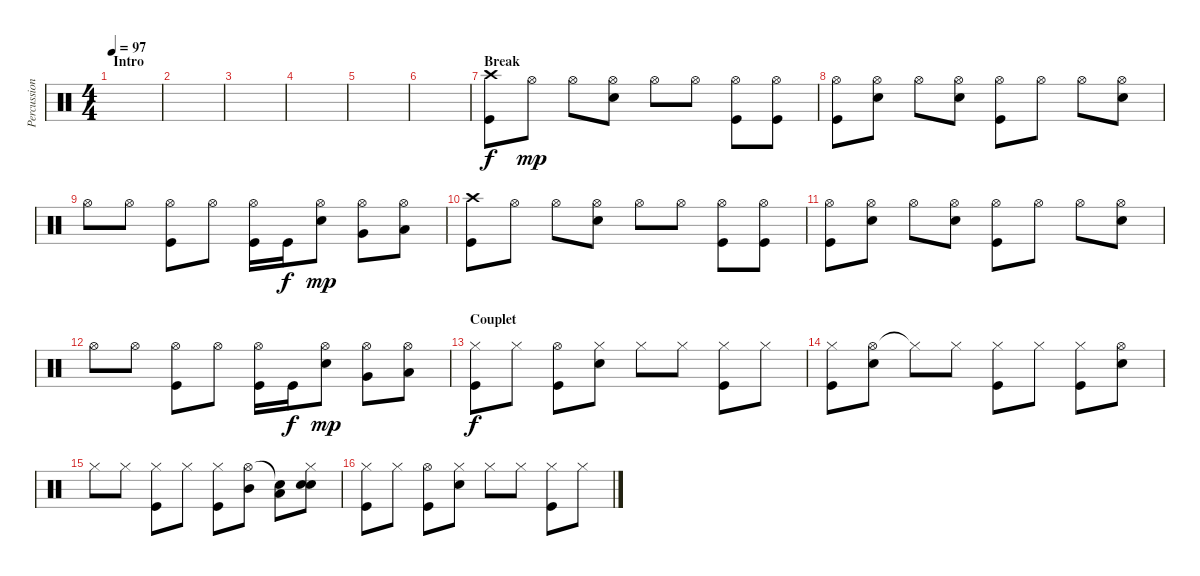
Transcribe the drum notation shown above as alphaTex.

\track ("Percussions (Etn)" "Percussion") {instrument percussion}
\staff {score}
\articulation defaults
\ts (4 4)
\section ("" "Intro")
\tempo 97
\clef neutral
\ks c
|
|
|
|
|
\section ("" "")
|
\section ("" "Break")
("Crash high (hit)" "Kick (hit)").8 "Hi-Hat (open)".8{dy mp} "Hi-Hat (open)".8 ("Hi-Hat (open)" "Electric Snare (hit)").8 "Hi-Hat (open)".8 "Hi-Hat (open)".8 ("Hi-Hat (open)" "Kick (hit)").8 ("Hi-Hat (open)" "Kick (hit)").8 |
("Hi-Hat (open)" "Kick (hit)").8 ("Hi-Hat (open)" "Electric Snare (hit)").8 "Hi-Hat (open)".8 ("Hi-Hat (open)" "Electric Snare (hit)").8 ("Hi-Hat (open)" "Kick (hit)").8 "Hi-Hat (open)".8 "Hi-Hat (open)".8 ("Hi-Hat (open)" "Electric Snare (hit)").8 |
"Hi-Hat (open)".8 "Hi-Hat (open)".8 ("Hi-Hat (open)" "Kick (hit)").8 "Hi-Hat (open)".8 ("Hi-Hat (open)" "Kick (hit)").16 "Kick (hit)".16{dy f} ("Hi-Hat (open)" "Electric Snare (hit)").8{dy mp} ("Hi-Hat (open)" "Very Low Tom (hit)").8 ("Hi-Hat (open)" "Low Floor Tom (hit)").8 |
("Crash high (hit)" "Kick (hit)").8 "Hi-Hat (open)".8 "Hi-Hat (open)".8 ("Hi-Hat (open)" "Electric Snare (hit)").8 "Hi-Hat (open)".8 "Hi-Hat (open)".8 ("Hi-Hat (open)" "Kick (hit)").8 ("Hi-Hat (open)" "Kick (hit)").8 |
("Hi-Hat (open)" "Kick (hit)").8 ("Hi-Hat (open)" "Electric Snare (hit)").8 "Hi-Hat (open)".8 ("Hi-Hat (open)" "Electric Snare (hit)").8 ("Hi-Hat (open)" "Kick (hit)").8 "Hi-Hat (open)".8 "Hi-Hat (open)".8 ("Hi-Hat (open)" "Electric Snare (hit)").8 |
\section ("" "")
"Hi-Hat (open)".8 "Hi-Hat (open)".8 ("Hi-Hat (open)" "Kick (hit)").8 "Hi-Hat (open)".8 ("Hi-Hat (open)" "Kick (hit)").16 "Kick (hit)".16{dy f} ("Hi-Hat (open)" "Electric Snare (hit)").8{dy mp} ("Hi-Hat (open)" "Very Low Tom (hit)").8 ("Hi-Hat (open)" "Low Floor Tom (hit)").8 |
\section ("" "Couplet")
("Hi-Hat (closed)" "Kick (hit)").8{dy f} "Hi-Hat (closed)".8 ("Hi-Hat (open)" "Kick (hit)").8 ("Hi-Hat (closed)" "Electric Snare (hit)").8 "Hi-Hat (closed)".8 "Hi-Hat (closed)".8 ("Hi-Hat (closed)" "Kick (hit)").8 "Hi-Hat (closed)".8 |
("Hi-Hat (closed)" "Kick (hit)").8 ("Hi-Hat (open)" "Electric Snare (hit)").8 "Hi-Hat (closed)"{t}.8 "Hi-Hat (closed)".8 ("Hi-Hat (closed)" "Kick (hit)").8 "Hi-Hat (closed)".8 ("Hi-Hat (closed)" "Kick (hit)").8 ("Hi-Hat (open)" "Electric Snare (hit)").8 |
"Hi-Hat (closed)".8 "Hi-Hat (closed)".8 ("Hi-Hat (closed)" "Kick (hit)").8 "Hi-Hat (closed)".8 ("Hi-Hat (closed)" "Kick (hit)").8 ("Hi-Hat (open)" "Mid Tom (hit)").8 ("Snare (hit)"{t} "Low Tom (hit)").8 ("Hi-Hat (closed)" "Electric Snare (hit)" "Electric Snare (hit)").8{bd 60} |
("Hi-Hat (closed)" "Kick (hit)").8 "Hi-Hat (closed)".8 ("Hi-Hat (open)" "Kick (hit)").8 ("Hi-Hat (closed)" "Electric Snare (hit)").8 "Hi-Hat (closed)".8 "Hi-Hat (closed)".8 ("Hi-Hat (closed)" "Kick (hit)").8 "Hi-Hat (closed)".8
